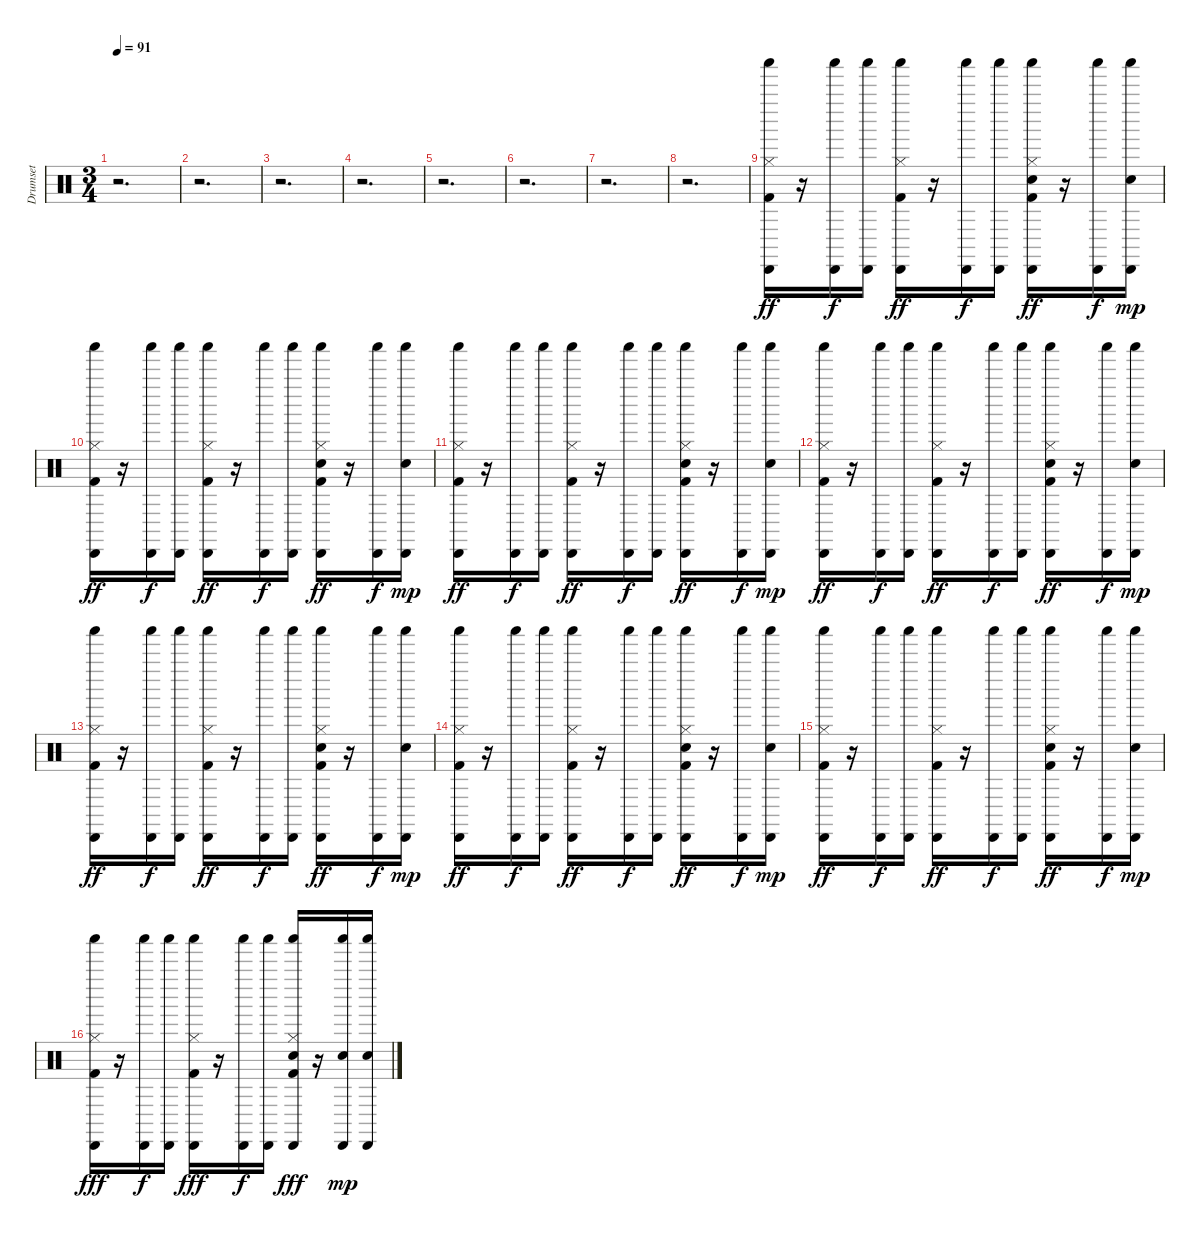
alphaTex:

\track ("Drumset" "Drumset") {instrument percussion}
\staff {score}
\articulation defaults
\ts (3 4)
\tempo 91
\clef neutral
\ks c
r.2{d dy ff} |
r.2{d} |
r.2{d} |
r.2{d} |
r.2{d} |
r.2{d} |
r.2{d} |
r.2{d} |
("Cabasa (hit)" "Shaker (hit)" "Hi-Hat (closed)" "Kick (hit) 2").16 r.16 ("Cabasa (hit)" "Shaker (hit)").16{dy f} ("Cabasa (hit)" "Shaker (hit)").16 ("Cabasa (hit)" "Shaker (hit)" "Hi-Hat (closed)" "Kick (hit) 2").16{dy ff} r.16 ("Cabasa (hit)" "Shaker (hit)").16{dy f} ("Cabasa (hit)" "Shaker (hit)").16 ("Cabasa (hit)" "Shaker (hit)" "Hi-Hat (closed)" "Snare (hit) 2" "Kick (hit) 2").16{dy ff} r.16 ("Cabasa (hit)" "Shaker (hit)").16{dy f} ("Cabasa (hit)" "Shaker (hit)" "Snare (hit) 2").16{dy mp} |
("Cabasa (hit)" "Shaker (hit)" "Hi-Hat (closed)" "Kick (hit) 2").16{dy ff} r.16 ("Cabasa (hit)" "Shaker (hit)").16{dy f} ("Cabasa (hit)" "Shaker (hit)").16 ("Cabasa (hit)" "Shaker (hit)" "Hi-Hat (closed)" "Kick (hit) 2").16{dy ff} r.16 ("Cabasa (hit)" "Shaker (hit)").16{dy f} ("Cabasa (hit)" "Shaker (hit)").16 ("Cabasa (hit)" "Shaker (hit)" "Hi-Hat (closed)" "Snare (hit) 2" "Kick (hit) 2").16{dy ff} r.16 ("Cabasa (hit)" "Shaker (hit)").16{dy f} ("Cabasa (hit)" "Shaker (hit)" "Snare (hit) 2").16{dy mp} |
("Cabasa (hit)" "Shaker (hit)" "Hi-Hat (closed)" "Kick (hit) 2").16{dy ff} r.16 ("Cabasa (hit)" "Shaker (hit)").16{dy f} ("Cabasa (hit)" "Shaker (hit)").16 ("Cabasa (hit)" "Shaker (hit)" "Hi-Hat (closed)" "Kick (hit) 2").16{dy ff} r.16 ("Cabasa (hit)" "Shaker (hit)").16{dy f} ("Cabasa (hit)" "Shaker (hit)").16 ("Cabasa (hit)" "Shaker (hit)" "Hi-Hat (closed)" "Snare (hit) 2" "Kick (hit) 2").16{dy ff} r.16 ("Cabasa (hit)" "Shaker (hit)").16{dy f} ("Cabasa (hit)" "Shaker (hit)" "Snare (hit) 2").16{dy mp} |
("Cabasa (hit)" "Shaker (hit)" "Hi-Hat (closed)" "Kick (hit) 2").16{dy ff} r.16 ("Cabasa (hit)" "Shaker (hit)").16{dy f} ("Cabasa (hit)" "Shaker (hit)").16 ("Cabasa (hit)" "Shaker (hit)" "Hi-Hat (closed)" "Kick (hit) 2").16{dy ff} r.16 ("Cabasa (hit)" "Shaker (hit)").16{dy f} ("Cabasa (hit)" "Shaker (hit)").16 ("Cabasa (hit)" "Shaker (hit)" "Hi-Hat (closed)" "Snare (hit) 2" "Kick (hit) 2").16{dy ff} r.16 ("Cabasa (hit)" "Shaker (hit)").16{dy f} ("Cabasa (hit)" "Shaker (hit)" "Snare (hit) 2").16{dy mp} |
("Cabasa (hit)" "Shaker (hit)" "Hi-Hat (closed)" "Kick (hit) 2").16{dy ff} r.16 ("Cabasa (hit)" "Shaker (hit)").16{dy f} ("Cabasa (hit)" "Shaker (hit)").16 ("Cabasa (hit)" "Shaker (hit)" "Hi-Hat (closed)" "Kick (hit) 2").16{dy ff} r.16 ("Cabasa (hit)" "Shaker (hit)").16{dy f} ("Cabasa (hit)" "Shaker (hit)").16 ("Cabasa (hit)" "Shaker (hit)" "Hi-Hat (closed)" "Snare (hit) 2" "Kick (hit) 2").16{dy ff} r.16 ("Cabasa (hit)" "Shaker (hit)").16{dy f} ("Cabasa (hit)" "Shaker (hit)" "Snare (hit) 2").16{dy mp} |
("Cabasa (hit)" "Shaker (hit)" "Hi-Hat (closed)" "Kick (hit) 2").16{dy ff} r.16 ("Cabasa (hit)" "Shaker (hit)").16{dy f} ("Cabasa (hit)" "Shaker (hit)").16 ("Cabasa (hit)" "Shaker (hit)" "Hi-Hat (closed)" "Kick (hit) 2").16{dy ff} r.16 ("Cabasa (hit)" "Shaker (hit)").16{dy f} ("Cabasa (hit)" "Shaker (hit)").16 ("Cabasa (hit)" "Shaker (hit)" "Hi-Hat (closed)" "Snare (hit) 2" "Kick (hit) 2").16{dy ff} r.16 ("Cabasa (hit)" "Shaker (hit)").16{dy f} ("Cabasa (hit)" "Shaker (hit)" "Snare (hit) 2").16{dy mp} |
("Cabasa (hit)" "Shaker (hit)" "Hi-Hat (closed)" "Kick (hit) 2").16{dy ff} r.16 ("Cabasa (hit)" "Shaker (hit)").16{dy f} ("Cabasa (hit)" "Shaker (hit)").16 ("Cabasa (hit)" "Shaker (hit)" "Hi-Hat (closed)" "Kick (hit) 2").16{dy ff} r.16 ("Cabasa (hit)" "Shaker (hit)").16{dy f} ("Cabasa (hit)" "Shaker (hit)").16 ("Cabasa (hit)" "Shaker (hit)" "Hi-Hat (closed)" "Snare (hit) 2" "Kick (hit) 2").16{dy ff} r.16 ("Cabasa (hit)" "Shaker (hit)").16{dy f} ("Cabasa (hit)" "Shaker (hit)" "Snare (hit) 2").16{dy mp} |
("Hi-Hat (closed)" "Kick (hit) 2" "Shaker (hit)" "Cabasa (hit)").16{dy fff} r.16 ("Cabasa (hit)" "Shaker (hit)").16{dy f} ("Cabasa (hit)" "Shaker (hit)").16 ("Hi-Hat (closed)" "Kick (hit) 2" "Shaker (hit)" "Cabasa (hit)").16{dy fff} r.16 ("Cabasa (hit)" "Shaker (hit)").16{dy f} ("Cabasa (hit)" "Shaker (hit)").16 ("Hi-Hat (closed)" "Snare (hit) 2" "Kick (hit) 2" "Shaker (hit)" "Cabasa (hit)").16{dy fff} r.16 ("Shaker (hit)" "Cabasa (hit)" "Snare (hit) 2").16{dy mp} ("Snare (hit) 2" "Cabasa (hit)" "Shaker (hit)").16
